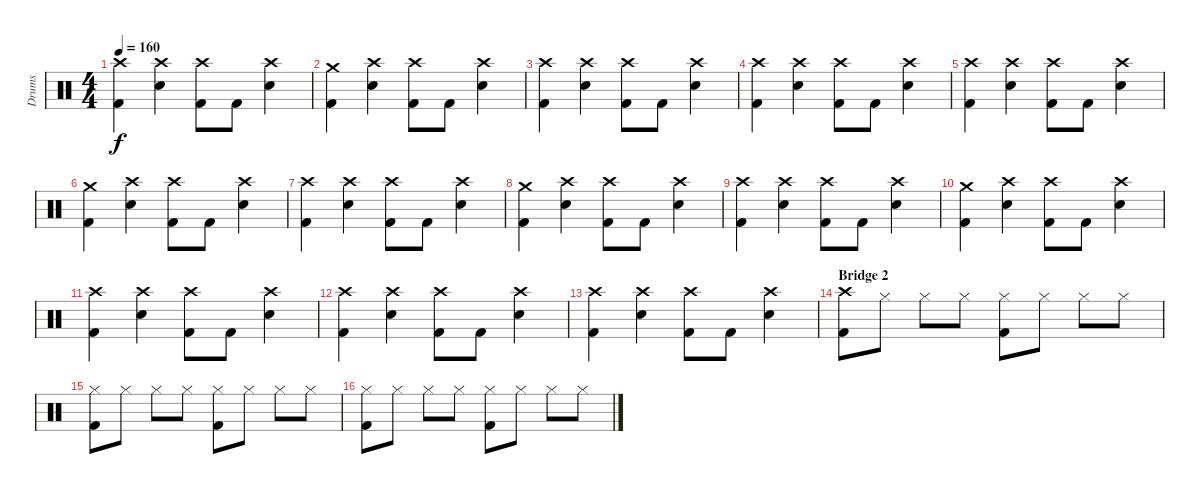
\track ("Drums" "Drums") {instrument percussion}
\staff {score}
\articulation defaults
\ts (4 4)
\tempo 160
\clef neutral
\ks c
("Crash high (hit)" "Kick (hit) 2").4{dy f} ("Crash high (hit)" "Electric Snare (hit)").4 ("Crash high (hit)" "Kick (hit) 2").8 "Kick (hit) 2".8 ("Crash high (hit)" "Electric Snare (hit)").4 |
("Crash medium (hit)" "Kick (hit) 2").4 ("Crash high (hit)" "Electric Snare (hit)").4 ("Crash high (hit)" "Kick (hit) 2").8 "Kick (hit) 2".8 ("Crash high (hit)" "Electric Snare (hit)").4 |
("Crash high (hit)" "Kick (hit) 2").4 ("Crash high (hit)" "Electric Snare (hit)").4 ("Crash high (hit)" "Kick (hit) 2").8 "Kick (hit) 2".8 ("Crash high (hit)" "Electric Snare (hit)").4 |
("Crash high (hit)" "Kick (hit) 2").4 ("Crash high (hit)" "Electric Snare (hit)").4 ("Crash high (hit)" "Kick (hit) 2").8 "Kick (hit) 2".8 ("Crash high (hit)" "Electric Snare (hit)").4 |
("Crash high (hit)" "Kick (hit) 2").4 ("Crash high (hit)" "Electric Snare (hit)").4 ("Crash high (hit)" "Kick (hit) 2").8 "Kick (hit) 2".8 ("Crash high (hit)" "Electric Snare (hit)").4 |
("Crash medium (hit)" "Kick (hit) 2").4 ("Crash high (hit)" "Electric Snare (hit)").4 ("Crash high (hit)" "Kick (hit) 2").8 "Kick (hit) 2".8 ("Crash high (hit)" "Electric Snare (hit)").4 |
("Crash high (hit)" "Kick (hit) 2").4 ("Crash high (hit)" "Electric Snare (hit)").4 ("Crash high (hit)" "Kick (hit) 2").8 "Kick (hit) 2".8 ("Crash high (hit)" "Electric Snare (hit)").4 |
("Crash medium (hit)" "Kick (hit) 2").4 ("Crash high (hit)" "Electric Snare (hit)").4 ("Crash high (hit)" "Kick (hit) 2").8 "Kick (hit) 2".8 ("Crash high (hit)" "Electric Snare (hit)").4 |
("Crash high (hit)" "Kick (hit) 2").4 ("Crash high (hit)" "Electric Snare (hit)").4 ("Crash high (hit)" "Kick (hit) 2").8 "Kick (hit) 2".8 ("Crash high (hit)" "Electric Snare (hit)").4 |
("Crash medium (hit)" "Kick (hit) 2").4 ("Crash high (hit)" "Electric Snare (hit)").4 ("Crash high (hit)" "Kick (hit) 2").8 "Kick (hit) 2".8 ("Crash high (hit)" "Electric Snare (hit)").4 |
("Crash high (hit)" "Kick (hit) 2").4 ("Crash high (hit)" "Electric Snare (hit)").4 ("Crash high (hit)" "Kick (hit) 2").8 "Kick (hit) 2".8 ("Crash high (hit)" "Electric Snare (hit)").4 |
("Crash high (hit)" "Kick (hit) 2").4 ("Crash high (hit)" "Electric Snare (hit)").4 ("Crash high (hit)" "Kick (hit) 2").8 "Kick (hit) 2".8 ("Crash high (hit)" "Electric Snare (hit)").4 |
("Crash high (hit)" "Kick (hit) 2").4 ("Crash high (hit)" "Electric Snare (hit)").4 ("Crash high (hit)" "Kick (hit) 2").8 "Kick (hit) 2".8 ("Crash high (hit)" "Electric Snare (hit)").4 |
\section ("" "Bridge 2")
("Crash high (hit)" "Kick (hit) 2").8 "Hi-Hat (closed)".8 "Hi-Hat (closed)".8 "Hi-Hat (closed)".8 ("Hi-Hat (closed)" "Kick (hit) 2").8 "Hi-Hat (closed)".8 "Hi-Hat (closed)".8 "Hi-Hat (closed)".8 |
("Hi-Hat (closed)" "Kick (hit) 2").8 "Hi-Hat (closed)".8 "Hi-Hat (closed)".8 "Hi-Hat (closed)".8 ("Hi-Hat (closed)" "Kick (hit) 2").8 "Hi-Hat (closed)".8 "Hi-Hat (closed)".8 "Hi-Hat (closed)".8 |
("Hi-Hat (closed)" "Kick (hit) 2").8 "Hi-Hat (closed)".8 "Hi-Hat (closed)".8 "Hi-Hat (closed)".8 ("Hi-Hat (closed)" "Kick (hit) 2").8 "Hi-Hat (closed)".8 "Hi-Hat (closed)".8 "Hi-Hat (closed)".8
